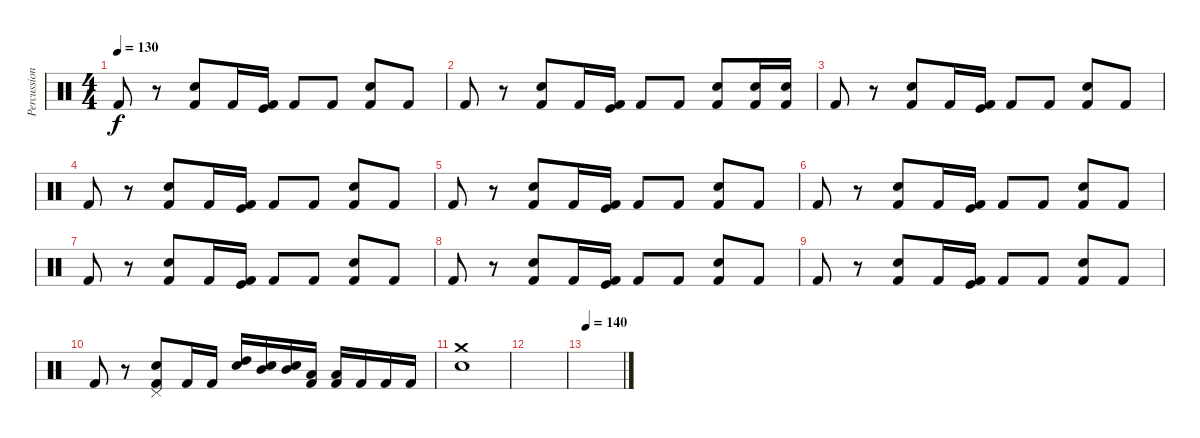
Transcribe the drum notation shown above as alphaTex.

\track ("Percussion" "Percussion") {instrument percussion}
\staff {score}
\articulation defaults
\ts (4 4)
\tempo 130
\clef neutral
\ks c "Kick (hit) 2".8{dy f}
r.8 ("Electric Snare (hit)" "Kick (hit) 2").8 "Kick (hit) 2".16 ("Kick (hit) 2" "Kick (hit)").16 "Kick (hit) 2".8 "Kick (hit) 2".8 ("Snare (hit) 2" "Kick (hit) 2").8 "Kick (hit) 2".8 |
"Kick (hit) 2".8 r.8 ("Electric Snare (hit)" "Kick (hit) 2").8 "Kick (hit) 2".16 ("Kick (hit) 2" "Kick (hit)").16 "Kick (hit) 2".8 "Kick (hit) 2".8 ("Snare (hit) 2" "Kick (hit) 2").8 ("Snare (hit) 2" "Kick (hit) 2").16 ("Snare (hit) 2" "Kick (hit) 2").16 |
"Kick (hit) 2".8 r.8 ("Electric Snare (hit)" "Kick (hit) 2").8 "Kick (hit) 2".16 ("Kick (hit) 2" "Kick (hit)").16 "Kick (hit) 2".8 "Kick (hit) 2".8 ("Snare (hit) 2" "Kick (hit) 2").8 "Kick (hit) 2".8 |
"Kick (hit) 2".8 r.8 ("Electric Snare (hit)" "Kick (hit) 2").8 "Kick (hit) 2".16 ("Kick (hit) 2" "Kick (hit)").16 "Kick (hit) 2".8 "Kick (hit) 2".8 ("Snare (hit) 2" "Kick (hit) 2").8 "Kick (hit) 2".8 |
"Kick (hit) 2".8 r.8 ("Electric Snare (hit)" "Kick (hit) 2").8 "Kick (hit) 2".16 ("Kick (hit) 2" "Kick (hit)").16 "Kick (hit) 2".8 "Kick (hit) 2".8 ("Snare (hit) 2" "Kick (hit) 2").8 "Kick (hit) 2".8 |
"Kick (hit) 2".8 r.8 ("Electric Snare (hit)" "Kick (hit) 2").8 "Kick (hit) 2".16 ("Kick (hit) 2" "Kick (hit)").16 "Kick (hit) 2".8 "Kick (hit) 2".8 ("Snare (hit) 2" "Kick (hit) 2").8 "Kick (hit) 2".8 |
"Kick (hit) 2".8 r.8 ("Electric Snare (hit)" "Kick (hit) 2").8 "Kick (hit) 2".16 ("Kick (hit) 2" "Kick (hit)").16 "Kick (hit) 2".8 "Kick (hit) 2".8 ("Snare (hit) 2" "Kick (hit) 2").8 "Kick (hit) 2".8 |
"Kick (hit) 2".8 r.8 ("Electric Snare (hit)" "Kick (hit) 2").8 "Kick (hit) 2".16 ("Kick (hit) 2" "Kick (hit)").16 "Kick (hit) 2".8 "Kick (hit) 2".8 ("Snare (hit) 2" "Kick (hit) 2").8 "Kick (hit) 2".8 |
"Kick (hit) 2".8 r.8 ("Electric Snare (hit)" "Kick (hit) 2").8 "Kick (hit) 2".16 ("Kick (hit) 2" "Kick (hit)").16 "Kick (hit) 2".8 "Kick (hit) 2".8 ("Snare (hit) 2" "Kick (hit) 2").8 "Kick (hit) 2".8 |
"Kick (hit) 2".8 r.8 ("Snare (hit) 2" "Kick (hit) 2" "Pedal Hi-Hat (hit)").8 "Kick (hit) 2".16 "Kick (hit) 2".16 ("Electric Snare (hit)" "High Tom (hit)").16 ("Electric Snare (hit)" "Mid Tom (hit)").16 ("Electric Snare (hit)" "Mid Tom (hit)").16 ("Kick (hit) 2" "Low Tom (hit)").16 ("Kick (hit) 2" "Low Tom (hit)").16 "Kick (hit) 2".16 "Kick (hit) 2".16 "Kick (hit) 2".16 |
("Crash medium (hit)" "Snare (hit) 2").1 |
|
\tempo 140
